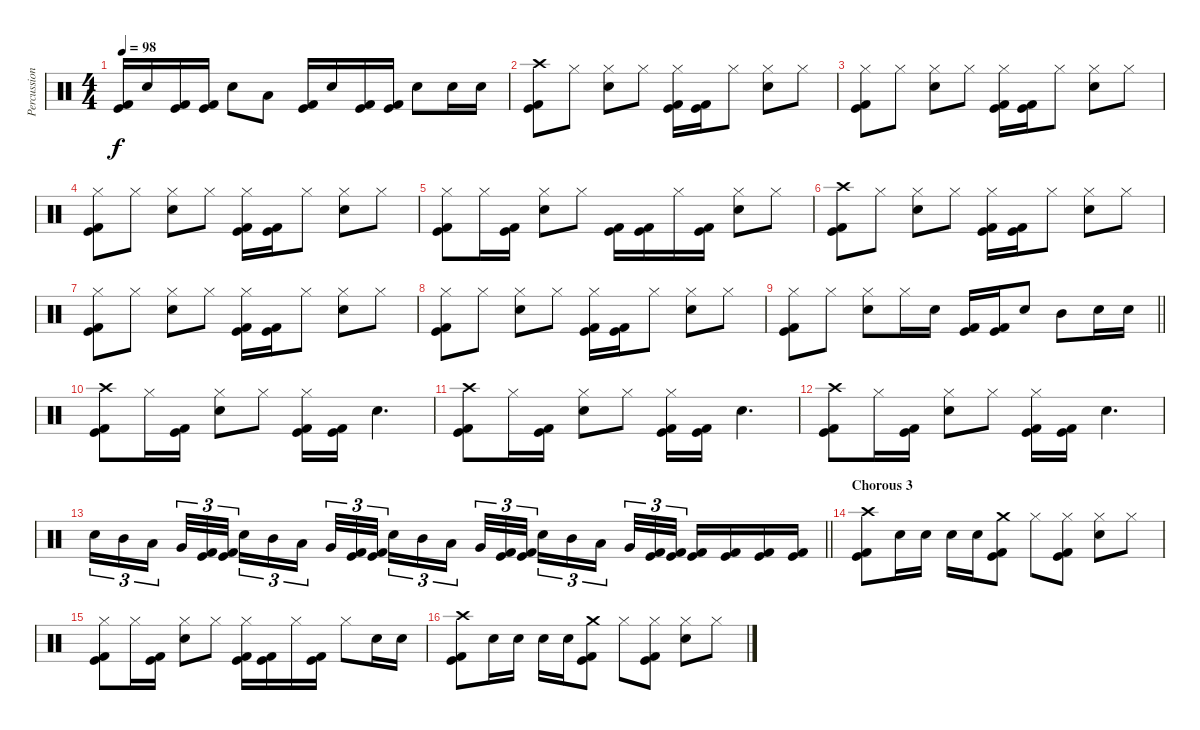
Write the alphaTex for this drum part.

\track ("Percussion" "Percussion") {instrument percussion}
\staff {score}
\articulation defaults
\ts (4 4)
\tempo 98
\clef neutral
\ks c
("Kick (hit)" "Kick (hit) 2").16{dy f} "Electric Snare (hit)".16 ("Kick (hit)" "Kick (hit) 2").16 ("Kick (hit)" "Kick (hit) 2").16 "Electric Snare (hit)".8 "Low Tom (hit)".8 ("Kick (hit)" "Kick (hit) 2").16 "Electric Snare (hit)".16 ("Kick (hit)" "Kick (hit) 2").16 ("Kick (hit)" "Kick (hit) 2").16 "Electric Snare (hit)".8 "Electric Snare (hit)".16 "Electric Snare (hit)".16 |
("Crash high (hit)" "Kick (hit)" "Kick (hit) 2").8 "Hi-Hat (closed)".8 ("Hi-Hat (closed)" "Electric Snare (hit)").8 "Hi-Hat (closed)".8 ("Hi-Hat (closed)" "Kick (hit)" "Kick (hit) 2").16 ("Kick (hit)" "Kick (hit) 2").16 "Hi-Hat (closed)".8 ("Hi-Hat (closed)" "Electric Snare (hit)").8 "Hi-Hat (closed)".8 |
("Hi-Hat (closed)" "Kick (hit)" "Kick (hit) 2").8 "Hi-Hat (closed)".8 ("Hi-Hat (closed)" "Electric Snare (hit)").8 "Hi-Hat (closed)".8 ("Hi-Hat (closed)" "Kick (hit)" "Kick (hit) 2").16 ("Kick (hit)" "Kick (hit) 2").16 "Hi-Hat (closed)".8 ("Hi-Hat (closed)" "Electric Snare (hit)").8 "Hi-Hat (closed)".8 |
("Hi-Hat (closed)" "Kick (hit)" "Kick (hit) 2").8 "Hi-Hat (closed)".8 ("Hi-Hat (closed)" "Electric Snare (hit)").8 "Hi-Hat (closed)".8 ("Hi-Hat (closed)" "Kick (hit)" "Kick (hit) 2").16 ("Kick (hit)" "Kick (hit) 2").16 "Hi-Hat (closed)".8 ("Hi-Hat (closed)" "Electric Snare (hit)").8 "Hi-Hat (closed)".8 |
("Hi-Hat (closed)" "Kick (hit)" "Kick (hit) 2").8 "Hi-Hat (closed)".16 ("Kick (hit)" "Kick (hit) 2").16 ("Hi-Hat (closed)" "Electric Snare (hit)").8 "Hi-Hat (closed)".8 ("Kick (hit)" "Kick (hit) 2").16 ("Kick (hit)" "Kick (hit) 2").16 "Hi-Hat (closed)".16 ("Kick (hit)" "Kick (hit) 2").16 ("Hi-Hat (closed)" "Electric Snare (hit)").8 "Hi-Hat (closed)".8 |
("Crash high (hit)" "Kick (hit)" "Kick (hit) 2").8 "Hi-Hat (closed)".8 ("Hi-Hat (closed)" "Electric Snare (hit)").8 "Hi-Hat (closed)".8 ("Hi-Hat (closed)" "Kick (hit)" "Kick (hit) 2").16 ("Kick (hit)" "Kick (hit) 2").16 "Hi-Hat (closed)".8 ("Hi-Hat (closed)" "Electric Snare (hit)").8 "Hi-Hat (closed)".8 |
("Hi-Hat (closed)" "Kick (hit)" "Kick (hit) 2").8 "Hi-Hat (closed)".8 ("Hi-Hat (closed)" "Electric Snare (hit)").8 "Hi-Hat (closed)".8 ("Hi-Hat (closed)" "Kick (hit)" "Kick (hit) 2").16 ("Kick (hit)" "Kick (hit) 2").16 "Hi-Hat (closed)".8 ("Hi-Hat (closed)" "Electric Snare (hit)").8 "Hi-Hat (closed)".8 |
("Hi-Hat (closed)" "Kick (hit)" "Kick (hit) 2").8 "Hi-Hat (closed)".8 ("Hi-Hat (closed)" "Electric Snare (hit)").8 "Hi-Hat (closed)".8 ("Hi-Hat (closed)" "Kick (hit)" "Kick (hit) 2").16 ("Kick (hit)" "Kick (hit) 2").16 "Hi-Hat (closed)".8 ("Hi-Hat (closed)" "Electric Snare (hit)").8 "Hi-Hat (closed)".8 |
\barLineRight lightlight
("Hi-Hat (closed)" "Kick (hit)" "Kick (hit) 2").8 "Hi-Hat (closed)".8 ("Hi-Hat (closed)" "Electric Snare (hit)").8 "Hi-Hat (closed)".16 "Electric Snare (hit)".16 ("Kick (hit)" "Kick (hit) 2").16 ("Kick (hit)" "Kick (hit) 2").16 "Electric Snare (hit)".8 "Mid Tom (hit)".8 "Electric Snare (hit)".16 "Electric Snare (hit)".16 |
\section ("" "")
("Crash high (hit)" "Kick (hit)" "Kick (hit) 2").8 "Hi-Hat (closed)".16 ("Kick (hit)" "Kick (hit) 2").16 ("Hi-Hat (closed)" "Electric Snare (hit)").8 "Hi-Hat (closed)".8 ("Hi-Hat (closed)" "Kick (hit)" "Kick (hit) 2").16 ("Kick (hit)" "Kick (hit) 2").16 "Electric Snare (hit)".4{d} |
("Crash high (hit)" "Kick (hit)" "Kick (hit) 2").8 "Hi-Hat (closed)".16 ("Kick (hit)" "Kick (hit) 2").16 ("Hi-Hat (closed)" "Electric Snare (hit)").8 "Hi-Hat (closed)".8 ("Hi-Hat (closed)" "Kick (hit)" "Kick (hit) 2").16 ("Kick (hit)" "Kick (hit) 2").16 "Electric Snare (hit)".4{d} |
("Crash high (hit)" "Kick (hit)" "Kick (hit) 2").8 "Hi-Hat (closed)".16 ("Kick (hit)" "Kick (hit) 2").16 ("Hi-Hat (closed)" "Electric Snare (hit)").8 "Hi-Hat (closed)".8 ("Hi-Hat (closed)" "Kick (hit)" "Kick (hit) 2").16 ("Kick (hit)" "Kick (hit) 2").16 "Electric Snare (hit)".4{d} |
\barLineRight lightlight "Electric Snare (hit)".16{tu (3 2)} "Mid Tom (hit)".16{tu (3 2)} "Low Tom (hit)".16{tu (3 2) beam splitsecondary} "Very Low Tom (hit)".32{tu (3 2)}
("Kick (hit)" "Kick (hit) 2").32{tu (3 2)} ("Kick (hit)" "Kick (hit) 2").32{tu (3 2) beam splitsecondary} "Electric Snare (hit)".16{tu (3 2)} "Mid Tom (hit)".16{tu (3 2)} "Low Tom (hit)".16{tu (3 2) beam splitsecondary} "Very Low Tom (hit)".32{tu (3 2)} ("Kick (hit)" "Kick (hit) 2").32{tu (3 2)} ("Kick (hit)" "Kick (hit) 2").32{tu (3 2) beam splitsecondary} "Electric Snare (hit)".16{tu (3 2)} "Mid Tom (hit)".16{tu (3 2)} "Low Tom (hit)".16{tu (3 2)} "Very Low Tom (hit)".32{tu (3 2)} ("Kick (hit)" "Kick (hit) 2").32{tu (3 2)} ("Kick (hit)" "Kick (hit) 2").32{tu (3 2) beam splitsecondary} "Electric Snare (hit)".16{tu (3 2)} "Mid Tom (hit)".16{tu (3 2)} "Low Tom (hit)".16{tu (3 2) beam splitsecondary} "Very Low Tom (hit)".32{tu (3 2)} ("Kick (hit)" "Kick (hit) 2").32{tu (3 2)} ("Kick (hit)" "Kick (hit) 2").32{tu (3 2)} ("Kick (hit)" "Kick (hit) 2").16 ("Kick (hit)" "Kick (hit) 2").16 ("Kick (hit)" "Kick (hit) 2").16 ("Kick (hit)" "Kick (hit) 2").16 |
\section ("" "Chorous 3")
("Crash high (hit)" "Kick (hit)" "Kick (hit) 2").8 "Electric Snare (hit)".16 "Electric Snare (hit)".16 "Electric Snare (hit)".16 "Electric Snare (hit)".16 ("Crash medium (hit)" "Kick (hit)" "Kick (hit) 2").8 "Hi-Hat (closed)".8 ("Hi-Hat (closed)" "Kick (hit)" "Kick (hit) 2").8 ("Hi-Hat (closed)" "Electric Snare (hit)").8 "Hi-Hat (closed)".8 |
("Hi-Hat (closed)" "Kick (hit)" "Kick (hit) 2").8 "Hi-Hat (closed)".16 ("Kick (hit)" "Kick (hit) 2").16 ("Hi-Hat (closed)" "Electric Snare (hit)").8 "Hi-Hat (closed)".8 ("Hi-Hat (closed)" "Kick (hit)" "Kick (hit) 2").16 ("Kick (hit)" "Kick (hit) 2").16 "Hi-Hat (closed)".16 ("Kick (hit)" "Kick (hit) 2").16 "Hi-Hat (closed)".8 "Electric Snare (hit)".16 "Electric Snare (hit)".16 |
("Crash high (hit)" "Kick (hit)" "Kick (hit) 2").8 "Electric Snare (hit)".16 "Electric Snare (hit)".16 "Electric Snare (hit)".16 "Electric Snare (hit)".16 ("Crash medium (hit)" "Kick (hit)" "Kick (hit) 2").8 "Hi-Hat (closed)".8 ("Hi-Hat (closed)" "Kick (hit)" "Kick (hit) 2").8 ("Hi-Hat (closed)" "Electric Snare (hit)").8 "Hi-Hat (closed)".8
